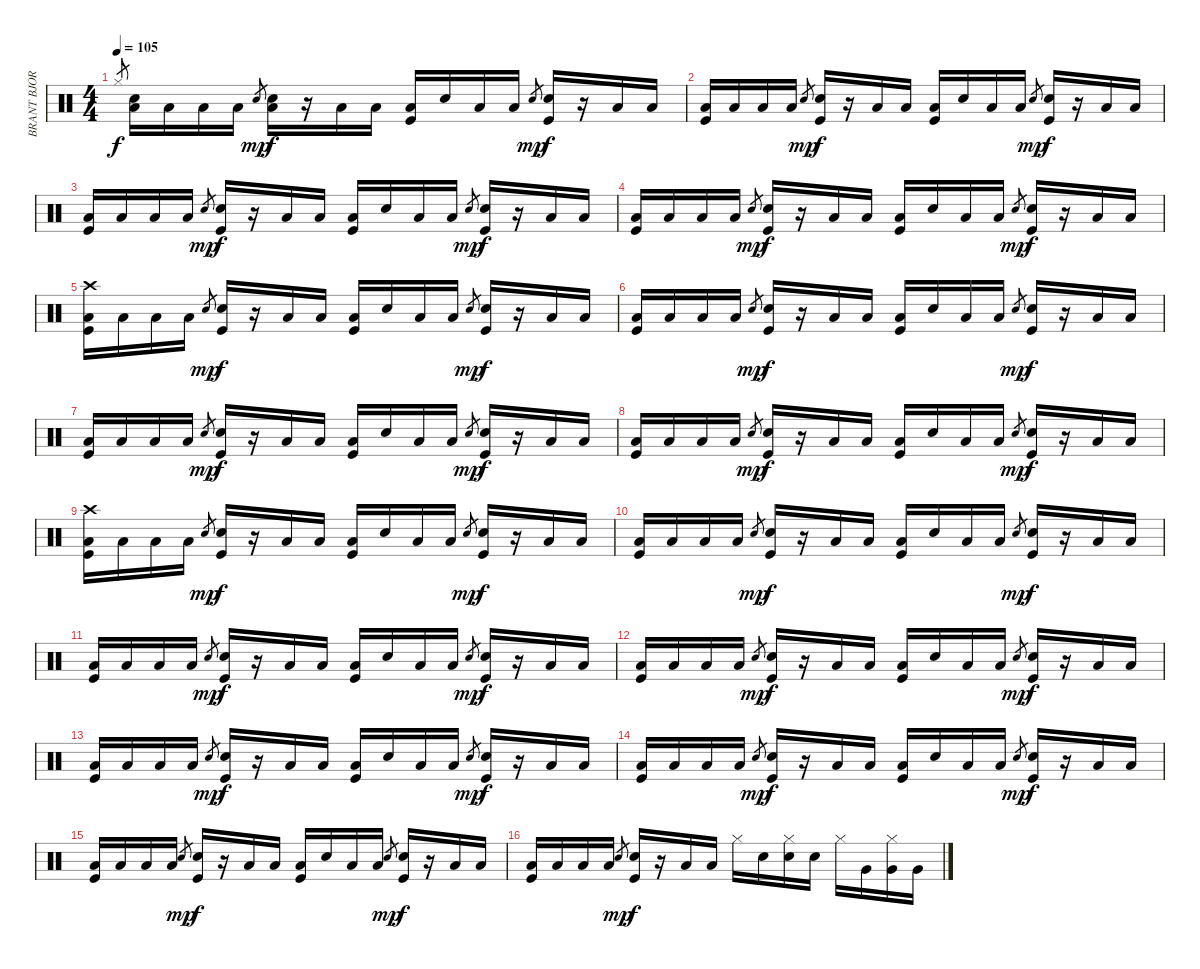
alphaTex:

\track ("BRANT BJORK -  DRUMS" "BRANT BJOR") {instrument percussion}
\staff {score}
\articulation defaults
\ts (4 4)
\tempo 105
\clef neutral
\ks c "Hi-Hat (closed)".8{gr dy f}
("Low Floor Tom (hit)" "Snare (hit) 2").16 "Low Floor Tom (hit)".16 "Low Floor Tom (hit)".16 "Low Floor Tom (hit)".16 "Snare (hit) 2".8{gr dy mp} ("Snare (hit) 2" "Low Floor Tom (hit)").16{dy f} r.16 "Low Floor Tom (hit)".16 "Low Floor Tom (hit)".16 ("Low Floor Tom (hit)" "Kick (hit)").16 "Snare (hit) 2".16 "Low Floor Tom (hit)".16 "Low Floor Tom (hit)".16 "Snare (hit) 2".8{gr dy mp} ("Snare (hit) 2" "Kick (hit)").16{dy f} r.16 "Low Floor Tom (hit)".16 "Low Floor Tom (hit)".16 |
("Low Floor Tom (hit)" "Kick (hit)").16 "Low Floor Tom (hit)".16 "Low Floor Tom (hit)".16 "Low Floor Tom (hit)".16 "Snare (hit) 2".8{gr dy mp} ("Snare (hit) 2" "Kick (hit)").16{dy f} r.16 "Low Floor Tom (hit)".16 "Low Floor Tom (hit)".16 ("Low Floor Tom (hit)" "Kick (hit)").16 "Snare (hit) 2".16 "Low Floor Tom (hit)".16 "Low Floor Tom (hit)".16 "Snare (hit) 2".8{gr dy mp} ("Snare (hit) 2" "Kick (hit)").16{dy f} r.16 "Low Floor Tom (hit)".16 "Low Floor Tom (hit)".16 |
("Low Floor Tom (hit)" "Kick (hit)").16 "Low Floor Tom (hit)".16 "Low Floor Tom (hit)".16 "Low Floor Tom (hit)".16 "Snare (hit) 2".8{gr dy mp} ("Snare (hit) 2" "Kick (hit)").16{dy f} r.16 "Low Floor Tom (hit)".16 "Low Floor Tom (hit)".16 ("Low Floor Tom (hit)" "Kick (hit)").16 "Snare (hit) 2".16 "Low Floor Tom (hit)".16 "Low Floor Tom (hit)".16 "Snare (hit) 2".8{gr dy mp} ("Snare (hit) 2" "Kick (hit)").16{dy f} r.16 "Low Floor Tom (hit)".16 "Low Floor Tom (hit)".16 |
("Low Floor Tom (hit)" "Kick (hit)").16 "Low Floor Tom (hit)".16 "Low Floor Tom (hit)".16 "Low Floor Tom (hit)".16 "Snare (hit) 2".8{gr dy mp} ("Snare (hit) 2" "Kick (hit)").16{dy f} r.16 "Low Floor Tom (hit)".16 "Low Floor Tom (hit)".16 ("Low Floor Tom (hit)" "Kick (hit)").16 "Snare (hit) 2".16 "Low Floor Tom (hit)".16 "Low Floor Tom (hit)".16 "Snare (hit) 2".8{gr dy mp} ("Snare (hit) 2" "Kick (hit)").16{dy f} r.16 "Low Floor Tom (hit)".16 "Low Floor Tom (hit)".16 |
("Crash high (hit)" "Low Floor Tom (hit)" "Kick (hit)").16 "Low Floor Tom (hit)".16 "Low Floor Tom (hit)".16 "Low Floor Tom (hit)".16 "Snare (hit) 2".8{gr dy mp} ("Snare (hit) 2" "Kick (hit)").16{dy f} r.16 "Low Floor Tom (hit)".16 "Low Floor Tom (hit)".16 ("Low Floor Tom (hit)" "Kick (hit)").16 "Snare (hit) 2".16 "Low Floor Tom (hit)".16 "Low Floor Tom (hit)".16 "Snare (hit) 2".8{gr dy mp} ("Snare (hit) 2" "Kick (hit)").16{dy f} r.16 "Low Floor Tom (hit)".16 "Low Floor Tom (hit)".16 |
("Low Floor Tom (hit)" "Kick (hit)").16 "Low Floor Tom (hit)".16 "Low Floor Tom (hit)".16 "Low Floor Tom (hit)".16 "Snare (hit) 2".8{gr dy mp} ("Snare (hit) 2" "Kick (hit)").16{dy f} r.16 "Low Floor Tom (hit)".16 "Low Floor Tom (hit)".16 ("Low Floor Tom (hit)" "Kick (hit)").16 "Snare (hit) 2".16 "Low Floor Tom (hit)".16 "Low Floor Tom (hit)".16 "Snare (hit) 2".8{gr dy mp} ("Snare (hit) 2" "Kick (hit)").16{dy f} r.16 "Low Floor Tom (hit)".16 "Low Floor Tom (hit)".16 |
("Low Floor Tom (hit)" "Kick (hit)").16 "Low Floor Tom (hit)".16 "Low Floor Tom (hit)".16 "Low Floor Tom (hit)".16 "Snare (hit) 2".8{gr dy mp} ("Snare (hit) 2" "Kick (hit)").16{dy f} r.16 "Low Floor Tom (hit)".16 "Low Floor Tom (hit)".16 ("Low Floor Tom (hit)" "Kick (hit)").16 "Snare (hit) 2".16 "Low Floor Tom (hit)".16 "Low Floor Tom (hit)".16 "Snare (hit) 2".8{gr dy mp} ("Snare (hit) 2" "Kick (hit)").16{dy f} r.16 "Low Floor Tom (hit)".16 "Low Floor Tom (hit)".16 |
("Low Floor Tom (hit)" "Kick (hit)").16 "Low Floor Tom (hit)".16 "Low Floor Tom (hit)".16 "Low Floor Tom (hit)".16 "Snare (hit) 2".8{gr dy mp} ("Snare (hit) 2" "Kick (hit)").16{dy f} r.16 "Low Floor Tom (hit)".16 "Low Floor Tom (hit)".16 ("Low Floor Tom (hit)" "Kick (hit)").16 "Snare (hit) 2".16 "Low Floor Tom (hit)".16 "Low Floor Tom (hit)".16 "Snare (hit) 2".8{gr dy mp} ("Snare (hit) 2" "Kick (hit)").16{dy f} r.16 "Low Floor Tom (hit)".16 "Low Floor Tom (hit)".16 |
("Crash high (hit)" "Low Floor Tom (hit)" "Kick (hit)").16 "Low Floor Tom (hit)".16 "Low Floor Tom (hit)".16 "Low Floor Tom (hit)".16 "Snare (hit) 2".8{gr dy mp} ("Snare (hit) 2" "Kick (hit)").16{dy f} r.16 "Low Floor Tom (hit)".16 "Low Floor Tom (hit)".16 ("Low Floor Tom (hit)" "Kick (hit)").16 "Snare (hit) 2".16 "Low Floor Tom (hit)".16 "Low Floor Tom (hit)".16 "Snare (hit) 2".8{gr dy mp} ("Snare (hit) 2" "Kick (hit)").16{dy f} r.16 "Low Floor Tom (hit)".16 "Low Floor Tom (hit)".16 |
("Low Floor Tom (hit)" "Kick (hit)").16 "Low Floor Tom (hit)".16 "Low Floor Tom (hit)".16 "Low Floor Tom (hit)".16 "Snare (hit) 2".8{gr dy mp} ("Snare (hit) 2" "Kick (hit)").16{dy f} r.16 "Low Floor Tom (hit)".16 "Low Floor Tom (hit)".16 ("Low Floor Tom (hit)" "Kick (hit)").16 "Snare (hit) 2".16 "Low Floor Tom (hit)".16 "Low Floor Tom (hit)".16 "Snare (hit) 2".8{gr dy mp} ("Snare (hit) 2" "Kick (hit)").16{dy f} r.16 "Low Floor Tom (hit)".16 "Low Floor Tom (hit)".16 |
("Low Floor Tom (hit)" "Kick (hit)").16 "Low Floor Tom (hit)".16 "Low Floor Tom (hit)".16 "Low Floor Tom (hit)".16 "Snare (hit) 2".8{gr dy mp} ("Snare (hit) 2" "Kick (hit)").16{dy f} r.16 "Low Floor Tom (hit)".16 "Low Floor Tom (hit)".16 ("Low Floor Tom (hit)" "Kick (hit)").16 "Snare (hit) 2".16 "Low Floor Tom (hit)".16 "Low Floor Tom (hit)".16 "Snare (hit) 2".8{gr dy mp} ("Snare (hit) 2" "Kick (hit)").16{dy f} r.16 "Low Floor Tom (hit)".16 "Low Floor Tom (hit)".16 |
("Low Floor Tom (hit)" "Kick (hit)").16 "Low Floor Tom (hit)".16 "Low Floor Tom (hit)".16 "Low Floor Tom (hit)".16 "Snare (hit) 2".8{gr dy mp} ("Snare (hit) 2" "Kick (hit)").16{dy f} r.16 "Low Floor Tom (hit)".16 "Low Floor Tom (hit)".16 ("Low Floor Tom (hit)" "Kick (hit)").16 "Snare (hit) 2".16 "Low Floor Tom (hit)".16 "Low Floor Tom (hit)".16 "Snare (hit) 2".8{gr dy mp} ("Snare (hit) 2" "Kick (hit)").16{dy f} r.16 "Low Floor Tom (hit)".16 "Low Floor Tom (hit)".16 |
("Low Floor Tom (hit)" "Kick (hit)").16 "Low Floor Tom (hit)".16 "Low Floor Tom (hit)".16 "Low Floor Tom (hit)".16 "Snare (hit) 2".8{gr dy mp} ("Snare (hit) 2" "Kick (hit)").16{dy f} r.16 "Low Floor Tom (hit)".16 "Low Floor Tom (hit)".16 ("Low Floor Tom (hit)" "Kick (hit)").16 "Snare (hit) 2".16 "Low Floor Tom (hit)".16 "Low Floor Tom (hit)".16 "Snare (hit) 2".8{gr dy mp} ("Snare (hit) 2" "Kick (hit)").16{dy f} r.16 "Low Floor Tom (hit)".16 "Low Floor Tom (hit)".16 |
("Low Floor Tom (hit)" "Kick (hit)").16 "Low Floor Tom (hit)".16 "Low Floor Tom (hit)".16 "Low Floor Tom (hit)".16 "Snare (hit) 2".8{gr dy mp} ("Snare (hit) 2" "Kick (hit)").16{dy f} r.16 "Low Floor Tom (hit)".16 "Low Floor Tom (hit)".16 ("Low Floor Tom (hit)" "Kick (hit)").16 "Snare (hit) 2".16 "Low Floor Tom (hit)".16 "Low Floor Tom (hit)".16 "Snare (hit) 2".8{gr dy mp} ("Snare (hit) 2" "Kick (hit)").16{dy f} r.16 "Low Floor Tom (hit)".16 "Low Floor Tom (hit)".16 |
("Low Floor Tom (hit)" "Kick (hit)").16 "Low Floor Tom (hit)".16 "Low Floor Tom (hit)".16 "Low Floor Tom (hit)".16 "Snare (hit) 2".8{gr dy mp} ("Snare (hit) 2" "Kick (hit)").16{dy f} r.16 "Low Floor Tom (hit)".16 "Low Floor Tom (hit)".16 ("Low Floor Tom (hit)" "Kick (hit)").16 "Snare (hit) 2".16 "Low Floor Tom (hit)".16 "Low Floor Tom (hit)".16 "Snare (hit) 2".8{gr dy mp} ("Snare (hit) 2" "Kick (hit)").16{dy f} r.16 "Low Floor Tom (hit)".16 "Low Floor Tom (hit)".16 |
("Low Floor Tom (hit)" "Kick (hit)").16 "Low Floor Tom (hit)".16 "Low Floor Tom (hit)".16 "Low Floor Tom (hit)".16 "Snare (hit) 2".8{gr dy mp} ("Snare (hit) 2" "Kick (hit)").16{dy f} r.16 "Low Floor Tom (hit)".16 "Low Floor Tom (hit)".16 "Hi-Hat (closed)".16 "Snare (hit) 2".16 ("Hi-Hat (closed)" "Snare (hit) 2").16 "Snare (hit) 2".16 "Hi-Hat (closed)".16 "Very Low Tom (hit)".16 ("Hi-Hat (closed)" "Very Low Tom (hit)").16 "Very Low Tom (hit)".16
